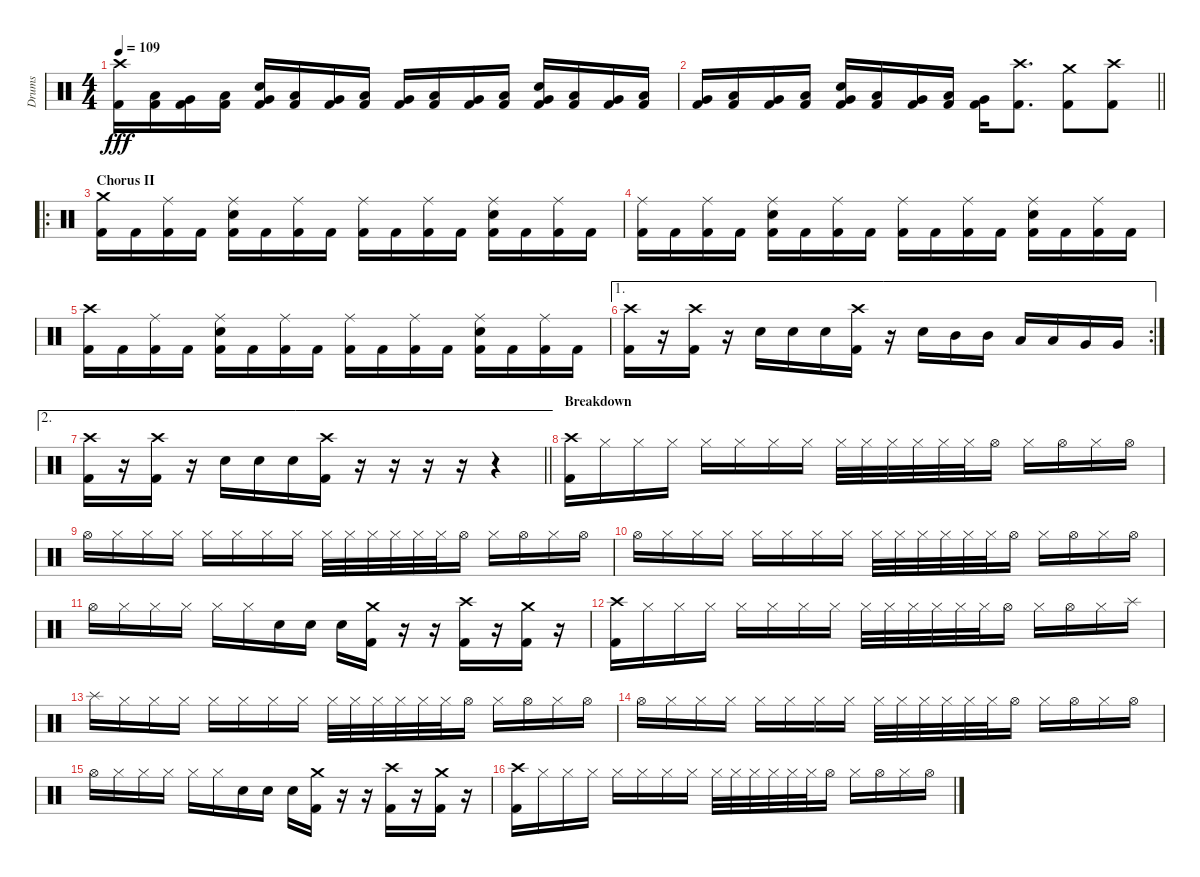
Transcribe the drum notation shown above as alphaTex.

\track ("Drums" "Drums") {instrument percussion}
\staff {score}
\articulation defaults
\ts (4 4)
\tempo 109
\clef neutral
\ks c
("Crash high (hit)" "Kick (hit) 2").16{dy fff} ("Low Tom (hit)" "Kick (hit) 2").16 ("Very Low Tom (hit)" "Kick (hit) 2").16 ("Low Tom (hit)" "Kick (hit) 2").16 ("Electric Snare (hit)" "Very Low Tom (hit)" "Kick (hit) 2").16 ("Low Tom (hit)" "Kick (hit) 2").16 ("Very Low Tom (hit)" "Kick (hit) 2").16 ("Low Tom (hit)" "Kick (hit) 2").16 ("Very Low Tom (hit)" "Kick (hit) 2").16 ("Low Tom (hit)" "Kick (hit) 2").16 ("Very Low Tom (hit)" "Kick (hit) 2").16 ("Low Tom (hit)" "Kick (hit) 2").16 ("Electric Snare (hit)" "Very Low Tom (hit)" "Kick (hit) 2").16 ("Low Tom (hit)" "Kick (hit) 2").16 ("Very Low Tom (hit)" "Kick (hit) 2").16 ("Low Tom (hit)" "Kick (hit) 2").16 |
\barLineRight lightlight
("Very Low Tom (hit)" "Kick (hit) 2").16 ("Low Tom (hit)" "Kick (hit) 2").16 ("Very Low Tom (hit)" "Kick (hit) 2").16 ("Low Tom (hit)" "Kick (hit) 2").16 ("Electric Snare (hit)" "Very Low Tom (hit)" "Kick (hit) 2").16 ("Low Tom (hit)" "Kick (hit) 2").16 ("Very Low Tom (hit)" "Kick (hit) 2").16 ("Low Tom (hit)" "Kick (hit) 2").16 ("Very Low Tom (hit)" "Kick (hit) 2").16 ("Crash high (hit)" "Kick (hit) 2").8{d} ("Crash medium (hit)" "Kick (hit) 2").8 ("Crash high (hit)" "Kick (hit) 2").8 |
\ro
\section ("" "Chorus II")
("Crash medium (hit)" "Kick (hit) 2").16 "Kick (hit) 2".16 ("Ride (middle)" "Kick (hit) 2").16 "Kick (hit) 2".16 ("Ride (middle)" "Electric Snare (hit)" "Kick (hit) 2").16 "Kick (hit) 2".16 ("Ride (middle)" "Kick (hit) 2").16 "Kick (hit) 2".16 ("Ride (middle)" "Kick (hit) 2").16 "Kick (hit) 2".16 ("Ride (middle)" "Kick (hit) 2").16 "Kick (hit) 2".16 ("Ride (middle)" "Electric Snare (hit)" "Kick (hit) 2").16 "Kick (hit) 2".16 ("Ride (middle)" "Kick (hit) 2").16 "Kick (hit) 2".16 |
("Ride (middle)" "Kick (hit) 2").16 "Kick (hit) 2".16 ("Ride (middle)" "Kick (hit) 2").16 "Kick (hit) 2".16 ("Ride (middle)" "Electric Snare (hit)" "Kick (hit) 2").16 "Kick (hit) 2".16 ("Ride (middle)" "Kick (hit) 2").16 "Kick (hit) 2".16 ("Ride (middle)" "Kick (hit) 2").16 "Kick (hit) 2".16 ("Ride (middle)" "Kick (hit) 2").16 "Kick (hit) 2".16 ("Ride (middle)" "Electric Snare (hit)" "Kick (hit) 2").16 "Kick (hit) 2".16 ("Ride (middle)" "Kick (hit) 2").16 "Kick (hit) 2".16 |
("Crash high (hit)" "Kick (hit) 2").16 "Kick (hit) 2".16 ("Ride (middle)" "Kick (hit) 2").16 "Kick (hit) 2".16 ("Ride (middle)" "Electric Snare (hit)" "Kick (hit) 2").16 "Kick (hit) 2".16 ("Ride (middle)" "Kick (hit) 2").16 "Kick (hit) 2".16 ("Ride (middle)" "Kick (hit) 2").16 "Kick (hit) 2".16 ("Ride (middle)" "Kick (hit) 2").16 "Kick (hit) 2".16 ("Ride (middle)" "Electric Snare (hit)" "Kick (hit) 2").16 "Kick (hit) 2".16 ("Ride (middle)" "Kick (hit) 2").16 "Kick (hit) 2".16 |
\ae 1
\rc 2
("Crash high (hit)" "Kick (hit) 2").16 r.16 ("Crash high (hit)" "Kick (hit) 2").16 r.16 "Electric Snare (hit)".16 "Electric Snare (hit)".16 "Electric Snare (hit)".16 ("Crash high (hit)" "Kick (hit) 2").16 r.16 "Electric Snare (hit)".16 "Mid Tom (hit)".16 "Mid Tom (hit)".16 "Low Tom (hit)".16 "Low Tom (hit)".16 "Very Low Tom (hit)".16 "Very Low Tom (hit)".16 |
\ae 2
\barLineRight lightlight
("Crash high (hit)" "Kick (hit) 2").16 r.16 ("Crash high (hit)" "Kick (hit) 2").16 r.16 "Electric Snare (hit)".16 "Electric Snare (hit)".16 "Electric Snare (hit)".16 ("Crash high (hit)" "Kick (hit) 2").16 r.16 r.16{volume 0} r.16 r.16 r.4 |
\section ("" "Breakdown")
("Crash high (hit)" "Kick (hit) 2").16{volume 16} "Hi-Hat (closed)".16 "Hi-Hat (closed)".16 "Hi-Hat (closed)".16 "Hi-Hat (closed)".16 "Hi-Hat (closed)".16 "Hi-Hat (closed)".16 "Hi-Hat (closed)".16 "Hi-Hat (closed)".32 "Hi-Hat (closed)".32 "Hi-Hat (closed)".32 "Hi-Hat (closed)".32 "Hi-Hat (closed)".32 "Hi-Hat (closed)".32 "Hi-Hat (open)".16 "Hi-Hat (closed)".16 "Hi-Hat (open)".16 "Hi-Hat (closed)".16 "Hi-Hat (open)".16 |
"Hi-Hat (open)".16 "Hi-Hat (closed)".16 "Hi-Hat (closed)".16 "Hi-Hat (closed)".16 "Hi-Hat (closed)".16 "Hi-Hat (closed)".16 "Hi-Hat (closed)".16 "Hi-Hat (closed)".16 "Hi-Hat (closed)".32 "Hi-Hat (closed)".32 "Hi-Hat (closed)".32 "Hi-Hat (closed)".32 "Hi-Hat (closed)".32 "Hi-Hat (closed)".32 "Hi-Hat (open)".16 "Hi-Hat (closed)".16 "Hi-Hat (open)".16 "Hi-Hat (closed)".16 "Hi-Hat (open)".16 |
"Hi-Hat (open)".16 "Hi-Hat (closed)".16 "Hi-Hat (closed)".16 "Hi-Hat (closed)".16 "Hi-Hat (closed)".16 "Hi-Hat (closed)".16 "Hi-Hat (closed)".16 "Hi-Hat (closed)".16 "Hi-Hat (closed)".32 "Hi-Hat (closed)".32 "Hi-Hat (closed)".32 "Hi-Hat (closed)".32 "Hi-Hat (closed)".32 "Hi-Hat (closed)".32 "Hi-Hat (open)".16 "Hi-Hat (closed)".16 "Hi-Hat (open)".16 "Hi-Hat (closed)".16 "Hi-Hat (open)".16 |
"Hi-Hat (open)".16 "Hi-Hat (closed)".16 "Hi-Hat (closed)".16 "Hi-Hat (closed)".16 "Hi-Hat (closed)".16 "Hi-Hat (closed)".16 "Electric Snare (hit)".16 "Electric Snare (hit)".16 "Electric Snare (hit)".16 ("Crash medium (hit)" "Kick (hit) 2").16 r.16 r.16 ("Crash high (hit)" "Kick (hit) 2").16 r.16 ("Crash medium (hit)" "Kick (hit) 2").16 r.16 |
("Crash high (hit)" "Kick (hit) 2").16 "Hi-Hat (closed)".16 "Hi-Hat (closed)".16 "Hi-Hat (closed)".16 "Hi-Hat (closed)".16 "Hi-Hat (closed)".16 "Hi-Hat (closed)".16 "Hi-Hat (closed)".16 "Hi-Hat (closed)".32 "Hi-Hat (closed)".32 "Hi-Hat (closed)".32 "Hi-Hat (closed)".32 "Hi-Hat (closed)".32 "Hi-Hat (closed)".32 "Hi-Hat (open)".16 "Hi-Hat (closed)".16 "Hi-Hat (open)".16 "Hi-Hat (closed)".16 "Splash (hit)".16 |
"Splash (hit)".16 "Hi-Hat (closed)".16 "Hi-Hat (closed)".16 "Hi-Hat (closed)".16 "Hi-Hat (closed)".16 "Hi-Hat (closed)".16 "Hi-Hat (closed)".16 "Hi-Hat (closed)".16 "Hi-Hat (closed)".32 "Hi-Hat (closed)".32 "Hi-Hat (closed)".32 "Hi-Hat (closed)".32 "Hi-Hat (closed)".32 "Hi-Hat (closed)".32 "Hi-Hat (open)".16 "Hi-Hat (closed)".16 "Hi-Hat (open)".16 "Hi-Hat (closed)".16 "Hi-Hat (open)".16 |
"Hi-Hat (open)".16 "Hi-Hat (closed)".16 "Hi-Hat (closed)".16 "Hi-Hat (closed)".16 "Hi-Hat (closed)".16 "Hi-Hat (closed)".16 "Hi-Hat (closed)".16 "Hi-Hat (closed)".16 "Hi-Hat (closed)".32 "Hi-Hat (closed)".32 "Hi-Hat (closed)".32 "Hi-Hat (closed)".32 "Hi-Hat (closed)".32 "Hi-Hat (closed)".32 "Hi-Hat (open)".16 "Hi-Hat (closed)".16 "Hi-Hat (open)".16 "Hi-Hat (closed)".16 "Hi-Hat (open)".16 |
"Hi-Hat (open)".16 "Hi-Hat (closed)".16 "Hi-Hat (closed)".16 "Hi-Hat (closed)".16 "Hi-Hat (closed)".16 "Hi-Hat (closed)".16 "Electric Snare (hit)".16 "Electric Snare (hit)".16 "Electric Snare (hit)".16 ("Crash medium (hit)" "Kick (hit) 2").16 r.16 r.16 ("Crash high (hit)" "Kick (hit) 2").16 r.16 ("Crash medium (hit)" "Kick (hit) 2").16 r.16 |
("Crash high (hit)" "Kick (hit) 2").16 "Hi-Hat (closed)".16 "Hi-Hat (closed)".16 "Hi-Hat (closed)".16 "Hi-Hat (closed)".16 "Hi-Hat (closed)".16 "Hi-Hat (closed)".16 "Hi-Hat (closed)".16 "Hi-Hat (closed)".32 "Hi-Hat (closed)".32 "Hi-Hat (closed)".32 "Hi-Hat (closed)".32 "Hi-Hat (closed)".32 "Hi-Hat (closed)".32 "Hi-Hat (open)".16 "Hi-Hat (closed)".16 "Hi-Hat (open)".16 "Hi-Hat (closed)".16 "Hi-Hat (open)".16
